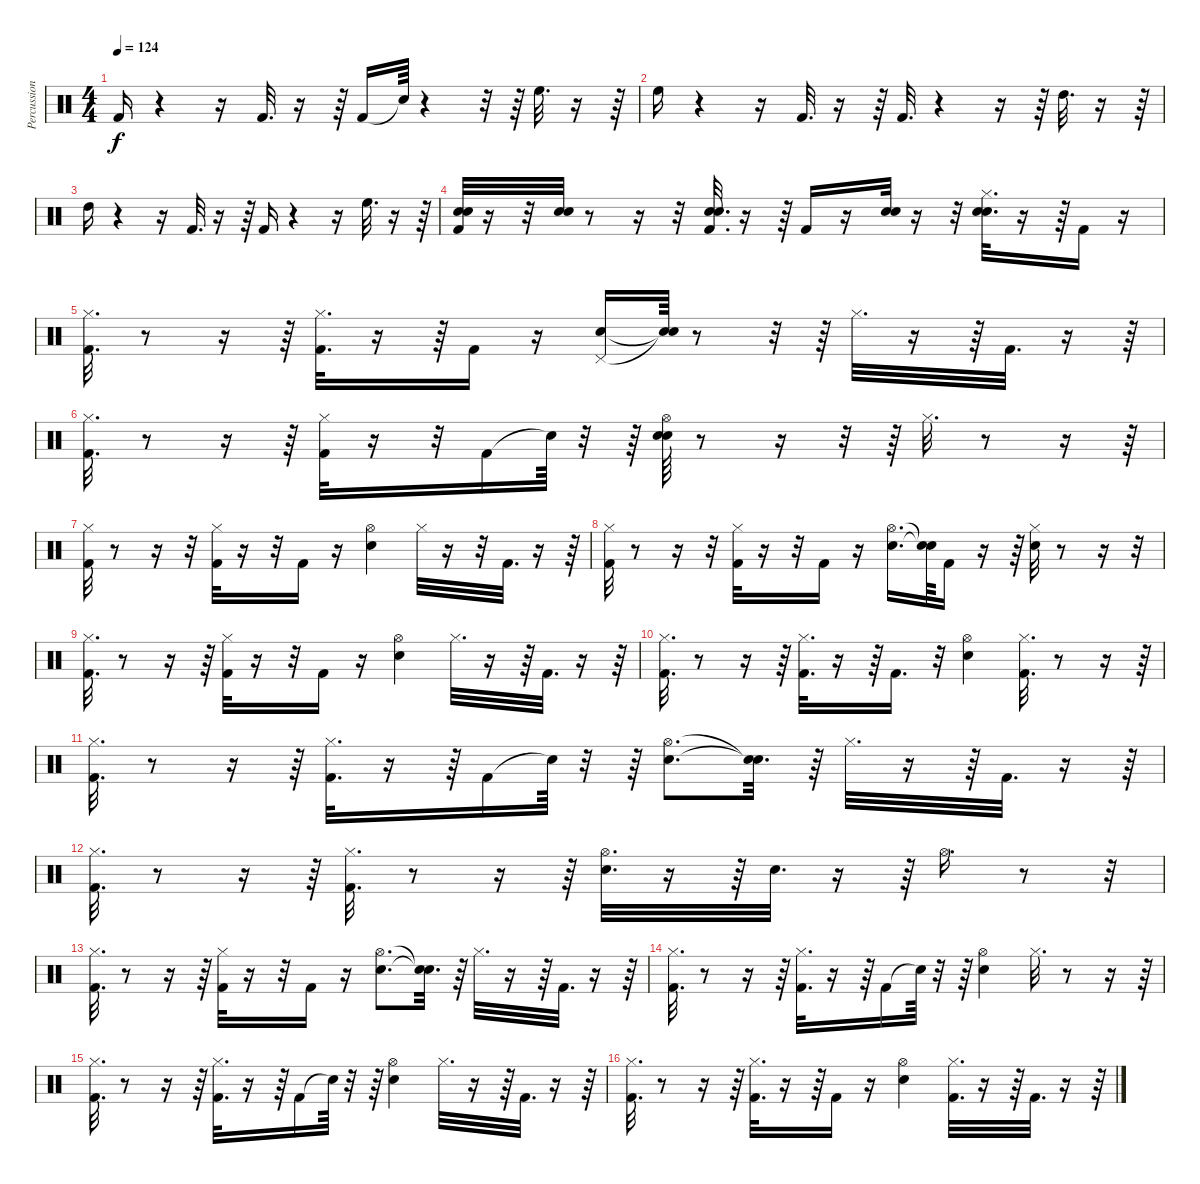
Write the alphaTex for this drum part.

\track ("Percussion" "Percussion") {instrument percussion}
\staff {score}
\articulation defaults
\ts (4 4)
\tempo 124
\clef neutral
\ks c "Kick (hit) 2".16{dy f}
r.4 r.16 "Kick (hit) 2".32{d} r.16 r.64 "Kick (hit) 2".16 "Snare (hit)"{t}.64 r.4 r.32 r.64 "High Floor Tom (hit)".32{d} r.16 r.64 |
"High Floor Tom (hit)".16 r.4 r.16 "Kick (hit) 2".32{d} r.16 r.64 "Kick (hit) 2".32{d} r.4 r.16 r.64 "High Tom (hit)".32{d} r.16 r.64 |
"High Tom (hit)".16 r.4 r.16 "Kick (hit) 2".32{d} r.16 r.64 "Kick (hit) 2".16 r.4 r.16 "High Floor Tom (hit)".32{d} r.16 r.64 |
("Kick (hit) 2" "Electric Snare (hit)" "Snare (hit) 2").32 r.16 r.32 ("Electric Snare (hit)" "Snare (hit) 2").32 r.8 r.16 r.32 ("Kick (hit) 2" "Snare (hit) 2" "Electric Snare (hit)").32{d} r.16 r.64 "Kick (hit) 2".16 r.16 ("Snare (hit) 2" "Electric Snare (hit)").32 r.16 r.32 ("Snare (hit) 2" "Electric Snare (hit)" "Hi-Hat (closed)").32{d} r.16 r.64 "Kick (hit) 2".16 r.16 |
("Kick (hit) 2" "Hi-Hat (closed)").32{d} r.8 r.16 r.64 ("Kick (hit) 2" "Hi-Hat (closed)").32{d} r.16 r.64 "Kick (hit) 2".16 r.16 ("Pedal Hi-Hat (hit)" "Snare (hit) 2").16 ("Snare (hit)"{t} "Snare (hit)"{t}).64 r.8 r.32 r.64 "Hi-Hat (closed)".32{d} r.16 r.64 "Kick (hit) 2".32{d} r.16 r.64 |
("Hi-Hat (closed)" "Kick (hit) 2").32{d} r.8 r.16 r.64 ("Hi-Hat (closed)" "Kick (hit) 2").32 r.16 r.32 "Kick (hit) 2".16 "Snare (hit)"{t}.64 r.32 r.64 ("Hi-Hat (open)" "Electric Snare (hit)" "Snare (hit) 2").64 r.8 r.16 r.32 r.64 "Hi-Hat (closed)".32{d} r.8 r.16 r.64 |
("Hi-Hat (closed)" "Kick (hit) 2").32 r.8 r.16 r.32 ("Hi-Hat (closed)" "Kick (hit) 2").32 r.16 r.32 "Kick (hit) 2".16 r.16 ("Hi-Hat (open)" "Electric Snare (hit)").4 "Hi-Hat (closed)".32 r.16 r.32 "Kick (hit) 2".32{d} r.16 r.64 |
("Hi-Hat (closed)" "Kick (hit) 2").32 r.8 r.16 r.32 ("Hi-Hat (closed)" "Kick (hit) 2").32 r.16 r.32 "Kick (hit) 2".16 r.16 ("Hi-Hat (open)" "Electric Snare (hit)").16{d} ("Snare (hit)"{t} "Snare (hit)"{t}).64 "Kick (hit) 2".16 r.16 r.64 ("Electric Snare (hit)" "Hi-Hat (closed)").32 r.8 r.16 r.32 |
("Kick (hit) 2" "Hi-Hat (closed)").32{d} r.8 r.16 r.64 ("Hi-Hat (closed)" "Kick (hit) 2").32 r.16 r.32 "Kick (hit) 2".16 r.16 ("Electric Snare (hit)" "Hi-Hat (open)").4 "Hi-Hat (closed)".32{d} r.16 r.64 "Kick (hit) 2".32{d} r.16 r.64 |
("Hi-Hat (closed)" "Kick (hit) 2").32{d} r.8 r.16 r.64 ("Hi-Hat (closed)" "Kick (hit) 2").32{d} r.16 r.64 "Kick (hit) 2".16{d} r.32 ("Electric Snare (hit)" "Hi-Hat (open)").4 ("Kick (hit) 2" "Hi-Hat (closed)").32{d} r.8 r.16 r.64 |
("Hi-Hat (closed)" "Kick (hit) 2").32{d} r.8 r.16 r.64 ("Hi-Hat (closed)" "Kick (hit) 2").32{d} r.16 r.64 "Kick (hit) 2".16 "Snare (hit)"{t}.64 r.32 r.64 ("Hi-Hat (open)" "Electric Snare (hit)").8{d} ("Snare (hit)"{t} "Snare (hit)"{t}).32{d} r.64 "Hi-Hat (closed)".32{d} r.16 r.64 "Kick (hit) 2".32{d} r.16 r.64 |
("Hi-Hat (closed)" "Kick (hit) 2").32{d} r.8 r.16 r.64 ("Hi-Hat (closed)" "Kick (hit) 2").32{d} r.8 r.16 r.64 ("Hi-Hat (open)" "Electric Snare (hit)").32{d} r.16 r.64 "Electric Snare (hit)".32{d} r.16 r.64 "Hi-Hat (open)".16{d} r.8 r.32 |
("Hi-Hat (closed)" "Kick (hit) 2").32{d} r.8 r.16 r.64 ("Kick (hit) 2" "Hi-Hat (closed)").32 r.16 r.32 "Kick (hit) 2".16 r.16 ("Hi-Hat (open)" "Electric Snare (hit)").8{d} ("Snare (hit)"{t} "Snare (hit)"{t}).32{d} r.64 "Hi-Hat (closed)".32{d} r.16 r.64 "Kick (hit) 2".32{d} r.16 r.64 |
("Hi-Hat (closed)" "Kick (hit) 2").32{d} r.8 r.16 r.64 ("Hi-Hat (closed)" "Kick (hit) 2").32{d} r.16 r.64 "Kick (hit) 2".16 "Snare (hit)"{t}.64 r.32 r.64 ("Electric Snare (hit)" "Hi-Hat (open)").4 "Hi-Hat (closed)".32{d} r.8 r.16 r.64 |
("Hi-Hat (closed)" "Kick (hit) 2").32{d} r.8 r.16 r.64 ("Hi-Hat (closed)" "Kick (hit) 2").32{d} r.16 r.64 "Kick (hit) 2".16 "Snare (hit)"{t}.64 r.32 r.64 ("Hi-Hat (open)" "Electric Snare (hit)").4 "Hi-Hat (closed)".32{d} r.16 r.64 "Kick (hit) 2".32{d} r.16 r.64 |
("Hi-Hat (closed)" "Kick (hit) 2").32{d} r.8 r.16 r.64 ("Hi-Hat (closed)" "Kick (hit) 2").32{d} r.16 r.64 "Kick (hit) 2".16 r.16 ("Hi-Hat (open)" "Electric Snare (hit)").4 ("Kick (hit) 2" "Hi-Hat (closed)").32{d} r.16 r.64 "Kick (hit) 2".32{d} r.16 r.64
